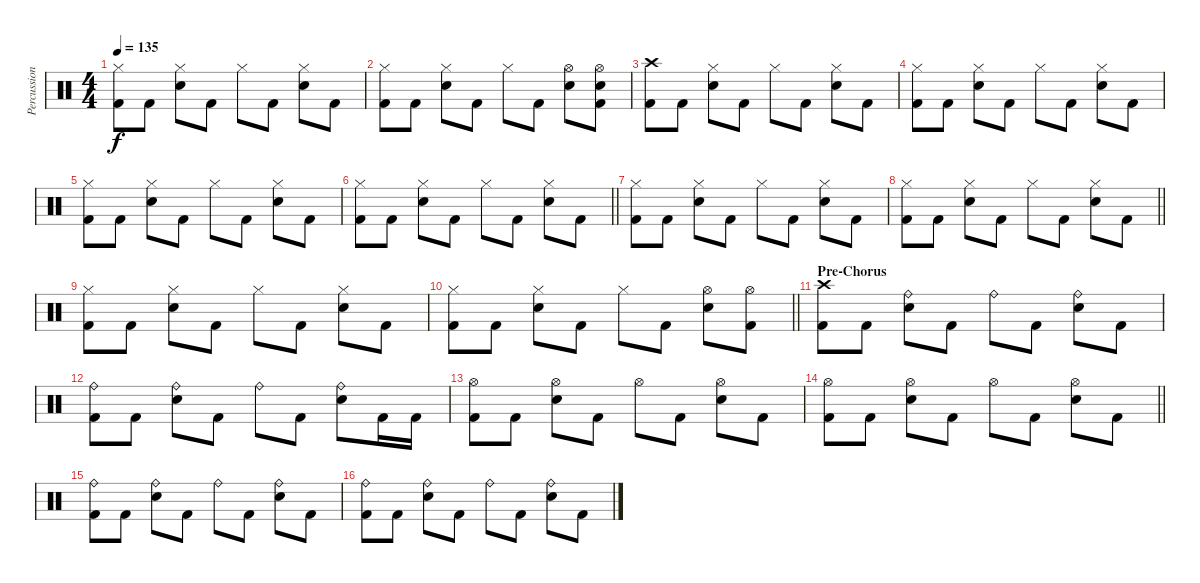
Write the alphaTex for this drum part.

\track ("Percussion" "Percussion") {instrument percussion}
\staff {score}
\articulation defaults
\ts (4 4)
\tempo 135
\clef neutral
\ks c
("Hi-Hat (closed)" "Kick (hit) 2").8{dy f} "Kick (hit) 2".8 ("Hi-Hat (closed)" "Electric Snare (hit)").8 "Kick (hit) 2".8 "Hi-Hat (closed)".8 "Kick (hit) 2".8 ("Hi-Hat (closed)" "Electric Snare (hit)").8 "Kick (hit) 2".8 |
("Hi-Hat (closed)" "Kick (hit) 2").8 "Kick (hit) 2".8 ("Hi-Hat (closed)" "Electric Snare (hit)").8 "Kick (hit) 2".8 "Hi-Hat (closed)".8 "Kick (hit) 2".8 ("Hi-Hat (open)" "Electric Snare (hit)").8 ("Hi-Hat (open)" "Electric Snare (hit)" "Kick (hit) 2").8 |
("Crash high (hit)" "Kick (hit) 2").8 "Kick (hit) 2".8 ("Hi-Hat (closed)" "Electric Snare (hit)").8 "Kick (hit) 2".8 "Hi-Hat (closed)".8 "Kick (hit) 2".8 ("Hi-Hat (closed)" "Electric Snare (hit)").8 "Kick (hit) 2".8 |
("Hi-Hat (closed)" "Kick (hit) 2").8 "Kick (hit) 2".8 ("Hi-Hat (closed)" "Electric Snare (hit)").8 "Kick (hit) 2".8 "Hi-Hat (closed)".8 "Kick (hit) 2".8 ("Hi-Hat (closed)" "Electric Snare (hit)").8 "Kick (hit) 2".8 |
("Hi-Hat (closed)" "Kick (hit) 2").8 "Kick (hit) 2".8 ("Hi-Hat (closed)" "Electric Snare (hit)").8 "Kick (hit) 2".8 "Hi-Hat (closed)".8 "Kick (hit) 2".8 ("Hi-Hat (closed)" "Electric Snare (hit)").8 "Kick (hit) 2".8 |
\barLineRight lightlight
("Hi-Hat (closed)" "Kick (hit) 2").8 "Kick (hit) 2".8 ("Hi-Hat (closed)" "Electric Snare (hit)").8 "Kick (hit) 2".8 "Hi-Hat (closed)".8 "Kick (hit) 2".8 ("Hi-Hat (closed)" "Electric Snare (hit)").8 "Kick (hit) 2".8 |
("Hi-Hat (closed)" "Kick (hit) 2").8 "Kick (hit) 2".8 ("Hi-Hat (closed)" "Electric Snare (hit)").8 "Kick (hit) 2".8 "Hi-Hat (closed)".8 "Kick (hit) 2".8 ("Hi-Hat (closed)" "Electric Snare (hit)").8 "Kick (hit) 2".8 |
\barLineRight lightlight
("Hi-Hat (closed)" "Kick (hit) 2").8 "Kick (hit) 2".8 ("Hi-Hat (closed)" "Electric Snare (hit)").8 "Kick (hit) 2".8 "Hi-Hat (closed)".8 "Kick (hit) 2".8 ("Hi-Hat (closed)" "Electric Snare (hit)").8 "Kick (hit) 2".8 |
("Hi-Hat (closed)" "Kick (hit) 2").8 "Kick (hit) 2".8 ("Hi-Hat (closed)" "Electric Snare (hit)").8 "Kick (hit) 2".8 "Hi-Hat (closed)".8 "Kick (hit) 2".8 ("Hi-Hat (closed)" "Electric Snare (hit)").8 "Kick (hit) 2".8 |
\barLineRight lightlight
("Hi-Hat (closed)" "Kick (hit) 2").8 "Kick (hit) 2".8 ("Hi-Hat (closed)" "Electric Snare (hit)").8 "Kick (hit) 2".8 "Hi-Hat (closed)".8 "Kick (hit) 2".8 ("Hi-Hat (open)" "Electric Snare (hit)").8 ("Hi-Hat (open)" "Kick (hit) 2").8 |
\section ("" "Pre-Chorus")
("Crash high (hit)" "Kick (hit) 2").8 "Kick (hit) 2".8 ("Ride (bell)" "Electric Snare (hit)").8 "Kick (hit) 2".8 "Ride (bell)".8 "Kick (hit) 2".8 ("Ride (bell)" "Electric Snare (hit)").8 "Kick (hit) 2".8 |
("Ride (bell)" "Kick (hit) 2").8 "Kick (hit) 2".8 ("Ride (bell)" "Electric Snare (hit)").8 "Kick (hit) 2".8 "Ride (bell)".8 "Kick (hit) 2".8 ("Ride (bell)" "Electric Snare (hit)").8 "Kick (hit) 2".16 "Kick (hit) 2".16 |
("Hi-Hat (open)" "Kick (hit) 2").8 "Kick (hit) 2".8 ("Hi-Hat (open)" "Electric Snare (hit)").8 "Kick (hit) 2".8 "Hi-Hat (open)".8 "Kick (hit) 2".8 ("Hi-Hat (open)" "Electric Snare (hit)").8 "Kick (hit) 2".8 |
\barLineRight lightlight
("Hi-Hat (open)" "Kick (hit) 2").8 "Kick (hit) 2".8 ("Hi-Hat (open)" "Electric Snare (hit)").8 "Kick (hit) 2".8 "Hi-Hat (open)".8 "Kick (hit) 2".8 ("Hi-Hat (open)" "Electric Snare (hit)").8 "Kick (hit) 2".8 |
("Ride (bell)" "Kick (hit) 2").8 "Kick (hit) 2".8 ("Ride (bell)" "Electric Snare (hit)").8 "Kick (hit) 2".8 "Ride (bell)".8 "Kick (hit) 2".8 ("Ride (bell)" "Electric Snare (hit)").8 "Kick (hit) 2".8 |
("Ride (bell)" "Kick (hit) 2").8 "Kick (hit) 2".8 ("Ride (bell)" "Electric Snare (hit)").8 "Kick (hit) 2".8 "Ride (bell)".8 "Kick (hit) 2".8 ("Ride (bell)" "Electric Snare (hit)").8 "Kick (hit) 2".8
